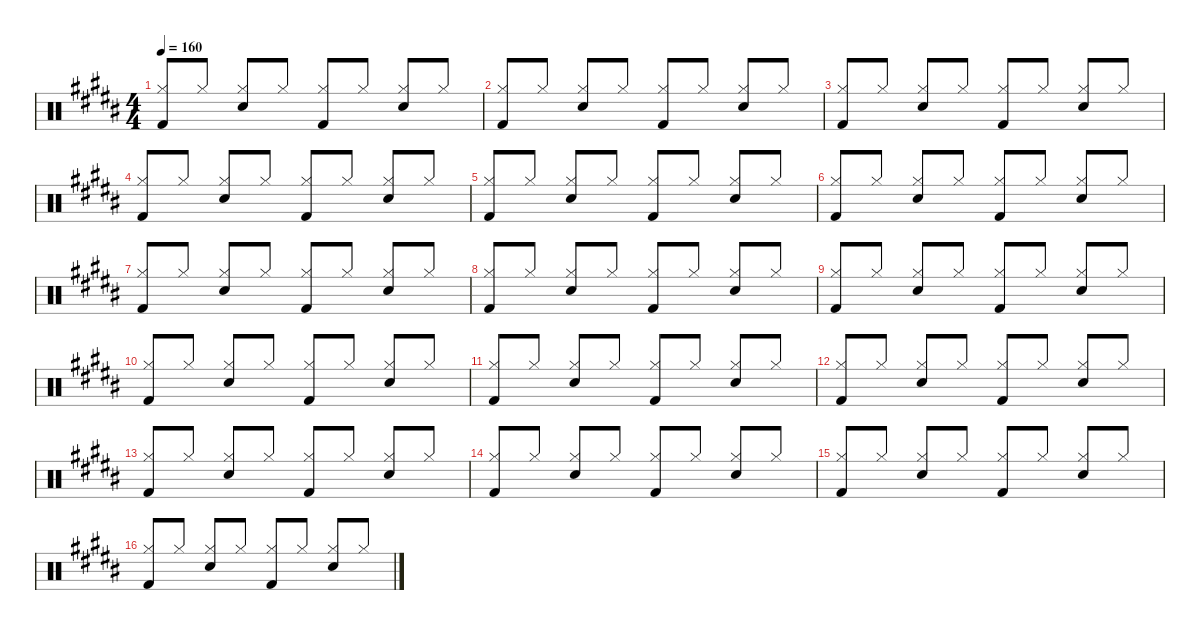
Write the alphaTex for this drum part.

\defaultSystemsLayout 4
\hideDynamics
\bracketExtendMode nobrackets
\singleTrackTrackNamePolicy hidden
\multiTrackTrackNamePolicy hidden
\otherSystemsTrackNameOrientation horizontal
\track ("Drumkit" "Drums") {instrument percussion}
\staff {score}
\articulation defaults
\ts (4 4)
\tempo 160
\clef neutral
\ks b
("Hi-Hat (closed)"{acc forcenatural} "Kick (hit) 2"{acc forcenatural}).8{dy ff beam invert} "Hi-Hat (closed)"{acc forcenatural}.8 ("Hi-Hat (closed)"{acc forcenatural} "Snare (hit) 2"{acc forcenatural}).8{beam invert} "Hi-Hat (closed)"{acc forcenatural}.8 ("Hi-Hat (closed)"{acc forcenatural} "Kick (hit) 2"{acc forcenatural}).8{beam invert} "Hi-Hat (closed)"{acc forcenatural}.8 ("Hi-Hat (closed)"{acc forcenatural} "Snare (hit) 2"{acc forcenatural}).8{beam invert} "Hi-Hat (closed)"{acc forcenatural}.8 |
("Hi-Hat (closed)"{acc forcenatural} "Kick (hit) 2"{acc forcenatural}).8{beam invert} "Hi-Hat (closed)"{acc forcenatural}.8 ("Hi-Hat (closed)"{acc forcenatural} "Snare (hit) 2"{acc forcenatural}).8{beam invert} "Hi-Hat (closed)"{acc forcenatural}.8 ("Hi-Hat (closed)"{acc forcenatural} "Kick (hit) 2"{acc forcenatural}).8{beam invert} "Hi-Hat (closed)"{acc forcenatural}.8 ("Hi-Hat (closed)"{acc forcenatural} "Snare (hit) 2"{acc forcenatural}).8{beam invert} "Hi-Hat (closed)"{acc forcenatural}.8 |
("Hi-Hat (closed)"{acc forcenatural} "Kick (hit) 2"{acc forcenatural}).8{beam invert} "Hi-Hat (closed)"{acc forcenatural}.8 ("Hi-Hat (closed)"{acc forcenatural} "Snare (hit) 2"{acc forcenatural}).8{beam invert} "Hi-Hat (closed)"{acc forcenatural}.8 ("Hi-Hat (closed)"{acc forcenatural} "Kick (hit) 2"{acc forcenatural}).8{beam invert} "Hi-Hat (closed)"{acc forcenatural}.8 ("Hi-Hat (closed)"{acc forcenatural} "Snare (hit) 2"{acc forcenatural}).8{beam invert} "Hi-Hat (closed)"{acc forcenatural}.8 |
("Hi-Hat (closed)"{acc forcenatural} "Kick (hit) 2"{acc forcenatural}).8{beam invert} "Hi-Hat (closed)"{acc forcenatural}.8 ("Hi-Hat (closed)"{acc forcenatural} "Snare (hit) 2"{acc forcenatural}).8{beam invert} "Hi-Hat (closed)"{acc forcenatural}.8 ("Hi-Hat (closed)"{acc forcenatural} "Kick (hit) 2"{acc forcenatural}).8{beam invert} "Hi-Hat (closed)"{acc forcenatural}.8 ("Hi-Hat (closed)"{acc forcenatural} "Snare (hit) 2"{acc forcenatural}).8{beam invert} "Hi-Hat (closed)"{acc forcenatural}.8 |
("Hi-Hat (closed)"{acc forcenatural} "Kick (hit) 2"{acc forcenatural}).8{beam invert} "Hi-Hat (closed)"{acc forcenatural}.8 ("Hi-Hat (closed)"{acc forcenatural} "Snare (hit) 2"{acc forcenatural}).8{beam invert} "Hi-Hat (closed)"{acc forcenatural}.8 ("Hi-Hat (closed)"{acc forcenatural} "Kick (hit) 2"{acc forcenatural}).8{beam invert} "Hi-Hat (closed)"{acc forcenatural}.8 ("Hi-Hat (closed)"{acc forcenatural} "Snare (hit) 2"{acc forcenatural}).8{beam invert} "Hi-Hat (closed)"{acc forcenatural}.8 |
("Hi-Hat (closed)"{acc forcenatural} "Kick (hit) 2"{acc forcenatural}).8{beam invert} "Hi-Hat (closed)"{acc forcenatural}.8 ("Hi-Hat (closed)"{acc forcenatural} "Snare (hit) 2"{acc forcenatural}).8{beam invert} "Hi-Hat (closed)"{acc forcenatural}.8 ("Hi-Hat (closed)"{acc forcenatural} "Kick (hit) 2"{acc forcenatural}).8{beam invert} "Hi-Hat (closed)"{acc forcenatural}.8 ("Hi-Hat (closed)"{acc forcenatural} "Snare (hit) 2"{acc forcenatural}).8{beam invert} "Hi-Hat (closed)"{acc forcenatural}.8 |
("Hi-Hat (closed)"{acc forcenatural} "Kick (hit) 2"{acc forcenatural}).8{beam invert} "Hi-Hat (closed)"{acc forcenatural}.8 ("Hi-Hat (closed)"{acc forcenatural} "Snare (hit) 2"{acc forcenatural}).8{beam invert} "Hi-Hat (closed)"{acc forcenatural}.8 ("Hi-Hat (closed)"{acc forcenatural} "Kick (hit) 2"{acc forcenatural}).8{beam invert} "Hi-Hat (closed)"{acc forcenatural}.8 ("Hi-Hat (closed)"{acc forcenatural} "Snare (hit) 2"{acc forcenatural}).8{beam invert} "Hi-Hat (closed)"{acc forcenatural}.8 |
("Hi-Hat (closed)"{acc forcenatural} "Kick (hit) 2"{acc forcenatural}).8{beam invert} "Hi-Hat (closed)"{acc forcenatural}.8 ("Hi-Hat (closed)"{acc forcenatural} "Snare (hit) 2"{acc forcenatural}).8{beam invert} "Hi-Hat (closed)"{acc forcenatural}.8 ("Hi-Hat (closed)"{acc forcenatural} "Kick (hit) 2"{acc forcenatural}).8{beam invert} "Hi-Hat (closed)"{acc forcenatural}.8 ("Hi-Hat (closed)"{acc forcenatural} "Snare (hit) 2"{acc forcenatural}).8{beam invert} "Hi-Hat (closed)"{acc forcenatural}.8 |
("Hi-Hat (closed)"{acc forcenatural} "Kick (hit) 2"{acc forcenatural}).8{beam invert} "Hi-Hat (closed)"{acc forcenatural}.8 ("Hi-Hat (closed)"{acc forcenatural} "Snare (hit) 2"{acc forcenatural}).8{beam invert} "Hi-Hat (closed)"{acc forcenatural}.8 ("Hi-Hat (closed)"{acc forcenatural} "Kick (hit) 2"{acc forcenatural}).8{beam invert} "Hi-Hat (closed)"{acc forcenatural}.8 ("Hi-Hat (closed)"{acc forcenatural} "Snare (hit) 2"{acc forcenatural}).8{beam invert} "Hi-Hat (closed)"{acc forcenatural}.8 |
("Hi-Hat (closed)"{acc forcenatural} "Kick (hit) 2"{acc forcenatural}).8{beam invert} "Hi-Hat (closed)"{acc forcenatural}.8 ("Hi-Hat (closed)"{acc forcenatural} "Snare (hit) 2"{acc forcenatural}).8{beam invert} "Hi-Hat (closed)"{acc forcenatural}.8 ("Hi-Hat (closed)"{acc forcenatural} "Kick (hit) 2"{acc forcenatural}).8{beam invert} "Hi-Hat (closed)"{acc forcenatural}.8 ("Hi-Hat (closed)"{acc forcenatural} "Snare (hit) 2"{acc forcenatural}).8{beam invert} "Hi-Hat (closed)"{acc forcenatural}.8 |
("Hi-Hat (closed)"{acc forcenatural} "Kick (hit) 2"{acc forcenatural}).8{beam invert} "Hi-Hat (closed)"{acc forcenatural}.8 ("Hi-Hat (closed)"{acc forcenatural} "Snare (hit) 2"{acc forcenatural}).8{beam invert} "Hi-Hat (closed)"{acc forcenatural}.8 ("Hi-Hat (closed)"{acc forcenatural} "Kick (hit) 2"{acc forcenatural}).8{beam invert} "Hi-Hat (closed)"{acc forcenatural}.8 ("Hi-Hat (closed)"{acc forcenatural} "Snare (hit) 2"{acc forcenatural}).8{beam invert} "Hi-Hat (closed)"{acc forcenatural}.8 |
("Hi-Hat (closed)"{acc forcenatural} "Kick (hit) 2"{acc forcenatural}).8{beam invert} "Hi-Hat (closed)"{acc forcenatural}.8 ("Hi-Hat (closed)"{acc forcenatural} "Snare (hit) 2"{acc forcenatural}).8{beam invert} "Hi-Hat (closed)"{acc forcenatural}.8 ("Hi-Hat (closed)"{acc forcenatural} "Kick (hit) 2"{acc forcenatural}).8{beam invert} "Hi-Hat (closed)"{acc forcenatural}.8 ("Hi-Hat (closed)"{acc forcenatural} "Snare (hit) 2"{acc forcenatural}).8{beam invert} "Hi-Hat (closed)"{acc forcenatural}.8 |
("Hi-Hat (closed)"{acc forcenatural} "Kick (hit) 2"{acc forcenatural}).8{beam invert} "Hi-Hat (closed)"{acc forcenatural}.8 ("Hi-Hat (closed)"{acc forcenatural} "Snare (hit) 2"{acc forcenatural}).8{beam invert} "Hi-Hat (closed)"{acc forcenatural}.8 ("Hi-Hat (closed)"{acc forcenatural} "Kick (hit) 2"{acc forcenatural}).8{beam invert} "Hi-Hat (closed)"{acc forcenatural}.8 ("Hi-Hat (closed)"{acc forcenatural} "Snare (hit) 2"{acc forcenatural}).8{beam invert} "Hi-Hat (closed)"{acc forcenatural}.8 |
("Hi-Hat (closed)"{acc forcenatural} "Kick (hit) 2"{acc forcenatural}).8{beam invert} "Hi-Hat (closed)"{acc forcenatural}.8 ("Hi-Hat (closed)"{acc forcenatural} "Snare (hit) 2"{acc forcenatural}).8{beam invert} "Hi-Hat (closed)"{acc forcenatural}.8 ("Hi-Hat (closed)"{acc forcenatural} "Kick (hit) 2"{acc forcenatural}).8{beam invert} "Hi-Hat (closed)"{acc forcenatural}.8 ("Hi-Hat (closed)"{acc forcenatural} "Snare (hit) 2"{acc forcenatural}).8{beam invert} "Hi-Hat (closed)"{acc forcenatural}.8 |
("Hi-Hat (closed)"{acc forcenatural} "Kick (hit) 2"{acc forcenatural}).8{beam invert} "Hi-Hat (closed)"{acc forcenatural}.8 ("Hi-Hat (closed)"{acc forcenatural} "Snare (hit) 2"{acc forcenatural}).8{beam invert} "Hi-Hat (closed)"{acc forcenatural}.8 ("Hi-Hat (closed)"{acc forcenatural} "Kick (hit) 2"{acc forcenatural}).8{beam invert} "Hi-Hat (closed)"{acc forcenatural}.8 ("Hi-Hat (closed)"{acc forcenatural} "Snare (hit) 2"{acc forcenatural}).8{beam invert} "Hi-Hat (closed)"{acc forcenatural}.8 |
("Hi-Hat (closed)"{acc forcenatural} "Kick (hit) 2"{acc forcenatural}).8{beam invert} "Hi-Hat (closed)"{acc forcenatural}.8 ("Hi-Hat (closed)"{acc forcenatural} "Snare (hit) 2"{acc forcenatural}).8{beam invert} "Hi-Hat (closed)"{acc forcenatural}.8 ("Hi-Hat (closed)"{acc forcenatural} "Kick (hit) 2"{acc forcenatural}).8{beam invert} "Hi-Hat (closed)"{acc forcenatural}.8 ("Hi-Hat (closed)"{acc forcenatural} "Snare (hit) 2"{acc forcenatural}).8{beam invert} "Hi-Hat (closed)"{acc forcenatural}.8
